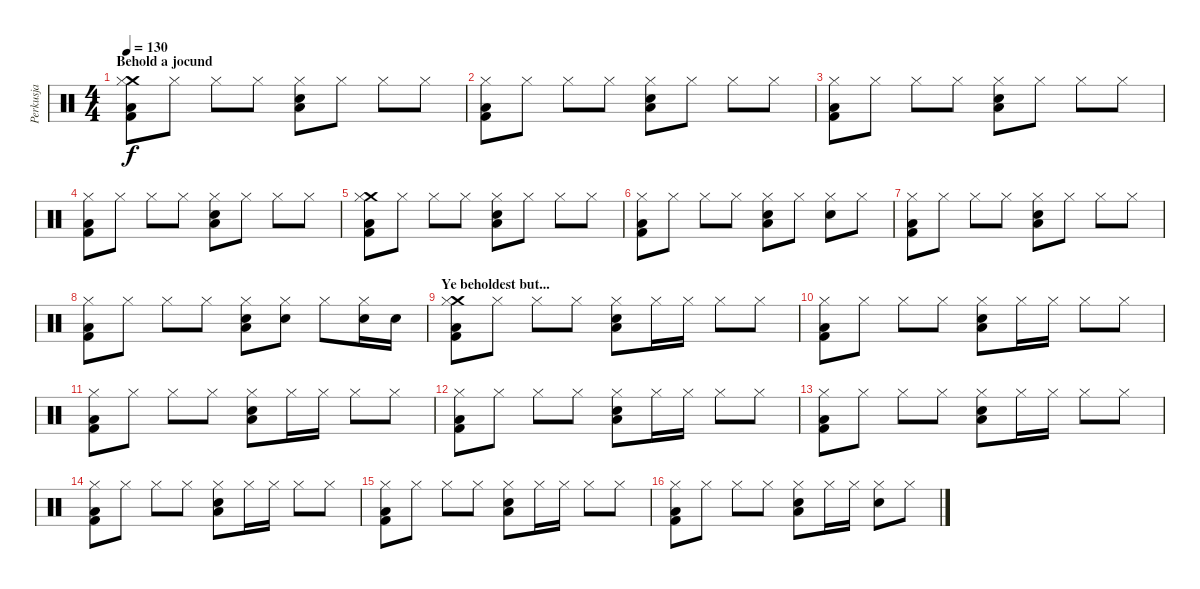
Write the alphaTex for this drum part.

\track ("Perkusja" "Perkusja") {instrument percussion}
\staff {score}
\articulation defaults
\ts (4 4)
\section ("" "Behold a jocund")
\tempo 130
\clef neutral
\ks c
("Crash medium (hit)" "Kick (hit) 2" "Hi-Hat (closed)" "Low Tom (hit)").8{dy f} "Hi-Hat (closed)".8 "Hi-Hat (closed)".8 "Hi-Hat (closed)".8 ("Snare (hit) 2" "Hi-Hat (closed)" "Low Tom (hit)").8 "Hi-Hat (closed)".8 "Hi-Hat (closed)".8 "Hi-Hat (closed)".8 |
("Kick (hit) 2" "Hi-Hat (closed)" "Low Tom (hit)").8 "Hi-Hat (closed)".8 "Hi-Hat (closed)".8 "Hi-Hat (closed)".8 ("Snare (hit) 2" "Hi-Hat (closed)" "Low Tom (hit)").8 "Hi-Hat (closed)".8 "Hi-Hat (closed)".8 "Hi-Hat (closed)".8 |
("Kick (hit) 2" "Hi-Hat (closed)" "Low Tom (hit)").8 "Hi-Hat (closed)".8 "Hi-Hat (closed)".8 "Hi-Hat (closed)".8 ("Snare (hit) 2" "Hi-Hat (closed)" "Low Tom (hit)").8 "Hi-Hat (closed)".8 "Hi-Hat (closed)".8 "Hi-Hat (closed)".8 |
("Kick (hit) 2" "Hi-Hat (closed)" "Low Tom (hit)").8 "Hi-Hat (closed)".8 "Hi-Hat (closed)".8 "Hi-Hat (closed)".8 ("Snare (hit) 2" "Hi-Hat (closed)" "Low Tom (hit)").8 "Hi-Hat (closed)".8 "Hi-Hat (closed)".8 "Hi-Hat (closed)".8 |
("Crash medium (hit)" "Kick (hit) 2" "Hi-Hat (closed)" "Low Tom (hit)").8 "Hi-Hat (closed)".8 "Hi-Hat (closed)".8 "Hi-Hat (closed)".8 ("Snare (hit) 2" "Hi-Hat (closed)" "Low Tom (hit)").8 "Hi-Hat (closed)".8 "Hi-Hat (closed)".8 "Hi-Hat (closed)".8 |
("Kick (hit) 2" "Hi-Hat (closed)" "Low Tom (hit)").8 "Hi-Hat (closed)".8 "Hi-Hat (closed)".8 "Hi-Hat (closed)".8 ("Snare (hit) 2" "Hi-Hat (closed)" "Low Tom (hit)").8 "Hi-Hat (closed)".8 ("Snare (hit) 2" "Hi-Hat (closed)").8 "Hi-Hat (closed)".8 |
("Kick (hit) 2" "Hi-Hat (closed)" "Low Tom (hit)").8 "Hi-Hat (closed)".8 "Hi-Hat (closed)".8 "Hi-Hat (closed)".8 ("Snare (hit) 2" "Hi-Hat (closed)" "Low Tom (hit)").8 "Hi-Hat (closed)".8 "Hi-Hat (closed)".8 "Hi-Hat (closed)".8 |
("Kick (hit) 2" "Hi-Hat (closed)" "Low Tom (hit)").8 "Hi-Hat (closed)".8 "Hi-Hat (closed)".8 "Hi-Hat (closed)".8 ("Snare (hit) 2" "Hi-Hat (closed)" "Low Tom (hit)").8 ("Snare (hit) 2" "Hi-Hat (closed)").8 "Hi-Hat (closed)".8 ("Snare (hit) 2" "Hi-Hat (closed)").16 "Snare (hit) 2".16 |
\section ("" "Ye beholdest but...")
("Crash medium (hit)" "Kick (hit) 2" "Hi-Hat (closed)" "Low Tom (hit)").8 "Hi-Hat (closed)".8 "Hi-Hat (closed)".8 "Hi-Hat (closed)".8 ("Snare (hit) 2" "Hi-Hat (closed)" "Low Tom (hit)").8 "Hi-Hat (closed)".16 "Hi-Hat (closed)".16 "Hi-Hat (closed)".8 "Hi-Hat (closed)".8 |
("Kick (hit) 2" "Hi-Hat (closed)" "Low Tom (hit)").8 "Hi-Hat (closed)".8 "Hi-Hat (closed)".8 "Hi-Hat (closed)".8 ("Snare (hit) 2" "Hi-Hat (closed)" "Low Tom (hit)").8 "Hi-Hat (closed)".16 "Hi-Hat (closed)".16 "Hi-Hat (closed)".8 "Hi-Hat (closed)".8 |
("Kick (hit) 2" "Hi-Hat (closed)" "Low Tom (hit)").8 "Hi-Hat (closed)".8 "Hi-Hat (closed)".8 "Hi-Hat (closed)".8 ("Snare (hit) 2" "Hi-Hat (closed)" "Low Tom (hit)").8 "Hi-Hat (closed)".16 "Hi-Hat (closed)".16 "Hi-Hat (closed)".8 "Hi-Hat (closed)".8 |
("Kick (hit) 2" "Hi-Hat (closed)" "Low Tom (hit)").8 "Hi-Hat (closed)".8 "Hi-Hat (closed)".8 "Hi-Hat (closed)".8 ("Snare (hit) 2" "Hi-Hat (closed)" "Low Tom (hit)").8 "Hi-Hat (closed)".16 "Hi-Hat (closed)".16 "Hi-Hat (closed)".8 "Hi-Hat (closed)".8 |
("Kick (hit) 2" "Hi-Hat (closed)" "Low Tom (hit)").8 "Hi-Hat (closed)".8 "Hi-Hat (closed)".8 "Hi-Hat (closed)".8 ("Snare (hit) 2" "Hi-Hat (closed)" "Low Tom (hit)").8 "Hi-Hat (closed)".16 "Hi-Hat (closed)".16 "Hi-Hat (closed)".8 "Hi-Hat (closed)".8 |
("Kick (hit) 2" "Hi-Hat (closed)" "Low Tom (hit)").8 "Hi-Hat (closed)".8 "Hi-Hat (closed)".8 "Hi-Hat (closed)".8 ("Snare (hit) 2" "Hi-Hat (closed)" "Low Tom (hit)").8 "Hi-Hat (closed)".16 "Hi-Hat (closed)".16 "Hi-Hat (closed)".8 "Hi-Hat (closed)".8 |
("Kick (hit) 2" "Hi-Hat (closed)" "Low Tom (hit)").8 "Hi-Hat (closed)".8 "Hi-Hat (closed)".8 "Hi-Hat (closed)".8 ("Snare (hit) 2" "Hi-Hat (closed)" "Low Tom (hit)").8 "Hi-Hat (closed)".16 "Hi-Hat (closed)".16 "Hi-Hat (closed)".8 "Hi-Hat (closed)".8 |
("Kick (hit) 2" "Hi-Hat (closed)" "Low Tom (hit)").8 "Hi-Hat (closed)".8 "Hi-Hat (closed)".8 "Hi-Hat (closed)".8 ("Snare (hit) 2" "Hi-Hat (closed)" "Low Tom (hit)").8 "Hi-Hat (closed)".16 "Hi-Hat (closed)".16 ("Snare (hit) 2" "Hi-Hat (closed)").8 "Hi-Hat (closed)".8
